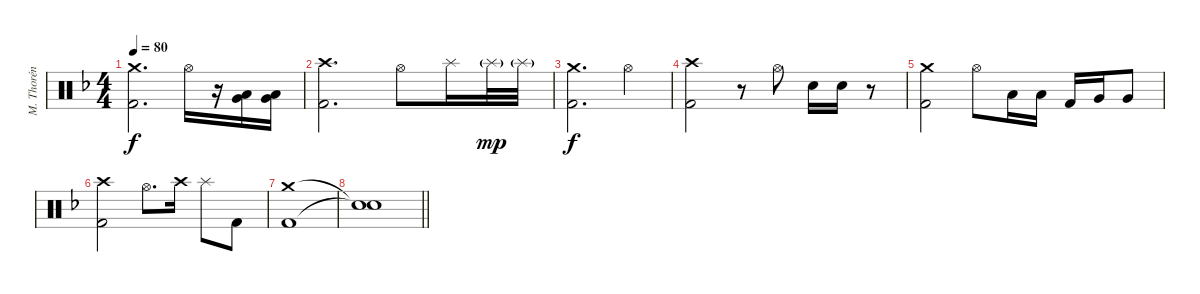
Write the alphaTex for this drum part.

\track ("M. Thorén (Drums)" "M. Thorén ") {instrument percussion}
\staff {score}
\articulation defaults
\ts (4 4)
\tempo 80
\clef neutral
\ks dminor
("Crash medium (hit)" "Kick (hit) 2").2{d dy f} "Hi-Hat (open)".16 r.16 ("Low Tom (hit)" "Very Low Tom (hit)").16 ("Low Tom (hit)" "Very Low Tom (hit)").16 |
("Crash high (hit)" "Kick (hit) 2").2{d} "Hi-Hat (open)".8 "Splash (hit)".16 "Splash (hit)"{g}.32{dy mp} "Splash (hit)"{g}.32 |
("Crash medium (hit)" "Kick (hit) 2").2{d dy f} "Hi-Hat (open)".4 |
("Crash high (hit)" "Kick (hit) 2").2 r.8 "Hi-Hat (open)".8 "Electric Snare (hit)".16 "Electric Snare (hit)".16 r.8 |
("Crash medium (hit)" "Kick (hit) 2").2 "Hi-Hat (open)".8 "Low Tom (hit)".16 "Low Tom (hit)".16 "Kick (hit) 2".16 "Very Low Tom (hit)".16 "Very Low Tom (hit)".8 |
("Crash high (hit)" "Kick (hit) 2").2 "Hi-Hat (open)".8{d} "Crash high (hit)".16 "Splash (hit)".8 "Kick (hit) 2".8 |
("Crash medium (hit)" "Kick (hit) 2").1 |
\barLineRight lightlight
("Snare (hit)"{t} "Snare (hit)"{t}).1
